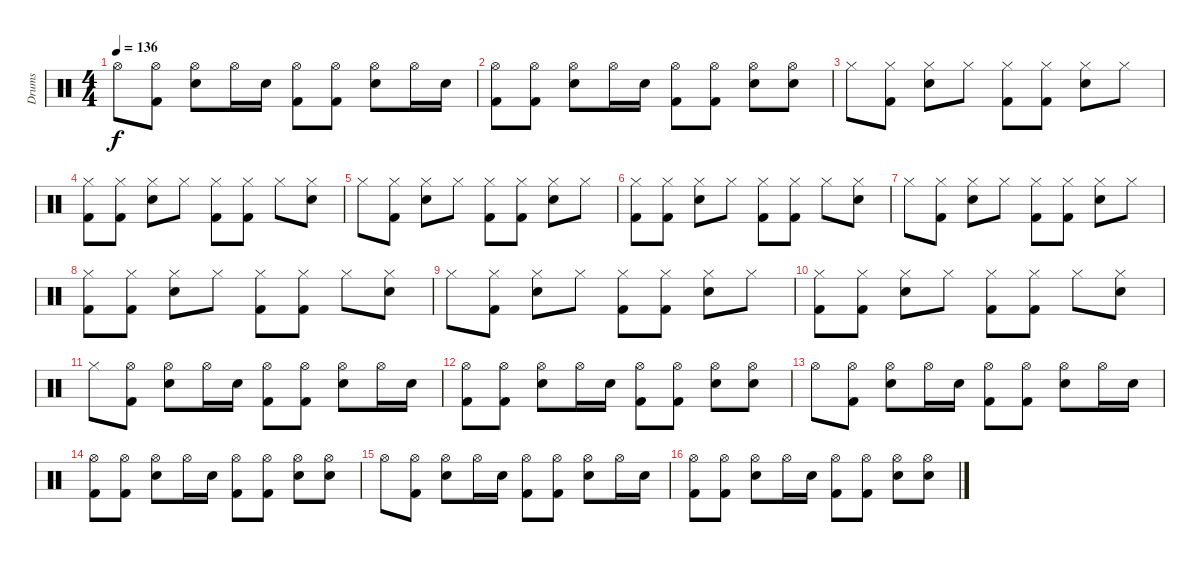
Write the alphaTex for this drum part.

\track ("Drums" "Drums") {instrument percussion}
\staff {score}
\articulation defaults
\ts (4 4)
\tempo 136
\clef neutral
\ks c "Hi-Hat (open)".8{dy f}
("Hi-Hat (open)" "Kick (hit) 2").8 ("Hi-Hat (open)" "Snare (hit) 2").8 "Hi-Hat (open)".16 "Snare (hit) 2".16 ("Hi-Hat (open)" "Kick (hit) 2").8 ("Hi-Hat (open)" "Kick (hit) 2").8 ("Hi-Hat (open)" "Snare (hit) 2").8 "Hi-Hat (open)".16 "Snare (hit) 2".16 |
("Hi-Hat (open)" "Kick (hit) 2").8 ("Hi-Hat (open)" "Kick (hit) 2").8 ("Hi-Hat (open)" "Snare (hit) 2").8 "Hi-Hat (open)".16 "Snare (hit) 2".16 ("Hi-Hat (open)" "Kick (hit) 2").8 ("Hi-Hat (open)" "Kick (hit) 2").8 ("Hi-Hat (open)" "Snare (hit) 2").8 ("Hi-Hat (open)" "Snare (hit) 2").8 |
"Hi-Hat (closed)".8 ("Hi-Hat (closed)" "Kick (hit) 2").8 ("Hi-Hat (closed)" "Snare (hit) 2").8 "Hi-Hat (closed)".8 ("Hi-Hat (closed)" "Kick (hit) 2").8 ("Hi-Hat (closed)" "Kick (hit) 2").8 ("Hi-Hat (closed)" "Snare (hit) 2").8 "Hi-Hat (closed)".8 |
("Hi-Hat (closed)" "Kick (hit) 2").8 ("Hi-Hat (closed)" "Kick (hit) 2").8 ("Hi-Hat (closed)" "Snare (hit) 2").8 "Hi-Hat (closed)".8 ("Hi-Hat (closed)" "Kick (hit) 2").8 ("Hi-Hat (closed)" "Kick (hit) 2").8 "Hi-Hat (closed)".8 ("Hi-Hat (closed)" "Snare (hit) 2").8 |
"Hi-Hat (closed)".8 ("Hi-Hat (closed)" "Kick (hit) 2").8 ("Hi-Hat (closed)" "Snare (hit) 2").8 "Hi-Hat (closed)".8 ("Hi-Hat (closed)" "Kick (hit) 2").8 ("Hi-Hat (closed)" "Kick (hit) 2").8 ("Hi-Hat (closed)" "Snare (hit) 2").8 "Hi-Hat (closed)".8 |
("Hi-Hat (closed)" "Kick (hit) 2").8 ("Hi-Hat (closed)" "Kick (hit) 2").8 ("Hi-Hat (closed)" "Snare (hit) 2").8 "Hi-Hat (closed)".8 ("Hi-Hat (closed)" "Kick (hit) 2").8 ("Hi-Hat (closed)" "Kick (hit) 2").8 "Hi-Hat (closed)".8 ("Hi-Hat (closed)" "Snare (hit) 2").8 |
"Hi-Hat (closed)".8 ("Hi-Hat (closed)" "Kick (hit) 2").8 ("Hi-Hat (closed)" "Snare (hit) 2").8 "Hi-Hat (closed)".8 ("Hi-Hat (closed)" "Kick (hit) 2").8 ("Hi-Hat (closed)" "Kick (hit) 2").8 ("Hi-Hat (closed)" "Snare (hit) 2").8 "Hi-Hat (closed)".8 |
("Hi-Hat (closed)" "Kick (hit) 2").8 ("Hi-Hat (closed)" "Kick (hit) 2").8 ("Hi-Hat (closed)" "Snare (hit) 2").8 "Hi-Hat (closed)".8 ("Hi-Hat (closed)" "Kick (hit) 2").8 ("Hi-Hat (closed)" "Kick (hit) 2").8 "Hi-Hat (closed)".8 ("Hi-Hat (closed)" "Snare (hit) 2").8 |
"Hi-Hat (closed)".8 ("Hi-Hat (closed)" "Kick (hit) 2").8 ("Hi-Hat (closed)" "Snare (hit) 2").8 "Hi-Hat (closed)".8 ("Hi-Hat (closed)" "Kick (hit) 2").8 ("Hi-Hat (closed)" "Kick (hit) 2").8 ("Hi-Hat (closed)" "Snare (hit) 2").8 "Hi-Hat (closed)".8 |
("Hi-Hat (closed)" "Kick (hit) 2").8 ("Hi-Hat (closed)" "Kick (hit) 2").8 ("Hi-Hat (closed)" "Snare (hit) 2").8 "Hi-Hat (closed)".8 ("Hi-Hat (closed)" "Kick (hit) 2").8 ("Hi-Hat (closed)" "Kick (hit) 2").8 "Hi-Hat (closed)".8 ("Hi-Hat (closed)" "Snare (hit) 2").8 |
"Hi-Hat (closed)".8 ("Hi-Hat (open)" "Kick (hit) 2").8 ("Hi-Hat (open)" "Snare (hit) 2").8 "Hi-Hat (open)".16 "Snare (hit) 2".16 ("Hi-Hat (open)" "Kick (hit) 2").8 ("Hi-Hat (open)" "Kick (hit) 2").8 ("Hi-Hat (open)" "Snare (hit) 2").8 "Hi-Hat (open)".16 "Snare (hit) 2".16 |
("Hi-Hat (open)" "Kick (hit) 2").8 ("Hi-Hat (open)" "Kick (hit) 2").8 ("Hi-Hat (open)" "Snare (hit) 2").8 "Hi-Hat (open)".16 "Snare (hit) 2".16 ("Hi-Hat (open)" "Kick (hit) 2").8 ("Hi-Hat (open)" "Kick (hit) 2").8 ("Hi-Hat (open)" "Snare (hit) 2").8 ("Hi-Hat (open)" "Snare (hit) 2").8 |
"Hi-Hat (open)".8 ("Hi-Hat (open)" "Kick (hit) 2").8 ("Hi-Hat (open)" "Snare (hit) 2").8 "Hi-Hat (open)".16 "Snare (hit) 2".16 ("Hi-Hat (open)" "Kick (hit) 2").8 ("Hi-Hat (open)" "Kick (hit) 2").8 ("Hi-Hat (open)" "Snare (hit) 2").8 "Hi-Hat (open)".16 "Snare (hit) 2".16 |
("Hi-Hat (open)" "Kick (hit) 2").8 ("Hi-Hat (open)" "Kick (hit) 2").8 ("Hi-Hat (open)" "Snare (hit) 2").8 "Hi-Hat (open)".16 "Snare (hit) 2".16 ("Hi-Hat (open)" "Kick (hit) 2").8 ("Hi-Hat (open)" "Kick (hit) 2").8 ("Hi-Hat (open)" "Snare (hit) 2").8 ("Hi-Hat (open)" "Snare (hit) 2").8 |
"Hi-Hat (open)".8 ("Hi-Hat (open)" "Kick (hit) 2").8 ("Hi-Hat (open)" "Snare (hit) 2").8 "Hi-Hat (open)".16 "Snare (hit) 2".16 ("Hi-Hat (open)" "Kick (hit) 2").8 ("Hi-Hat (open)" "Kick (hit) 2").8 ("Hi-Hat (open)" "Snare (hit) 2").8 "Hi-Hat (open)".16 "Snare (hit) 2".16 |
("Hi-Hat (open)" "Kick (hit) 2").8 ("Hi-Hat (open)" "Kick (hit) 2").8 ("Hi-Hat (open)" "Snare (hit) 2").8 "Hi-Hat (open)".16 "Snare (hit) 2".16 ("Hi-Hat (open)" "Kick (hit) 2").8 ("Hi-Hat (open)" "Kick (hit) 2").8 ("Hi-Hat (open)" "Snare (hit) 2").8 ("Hi-Hat (open)" "Snare (hit) 2").8
